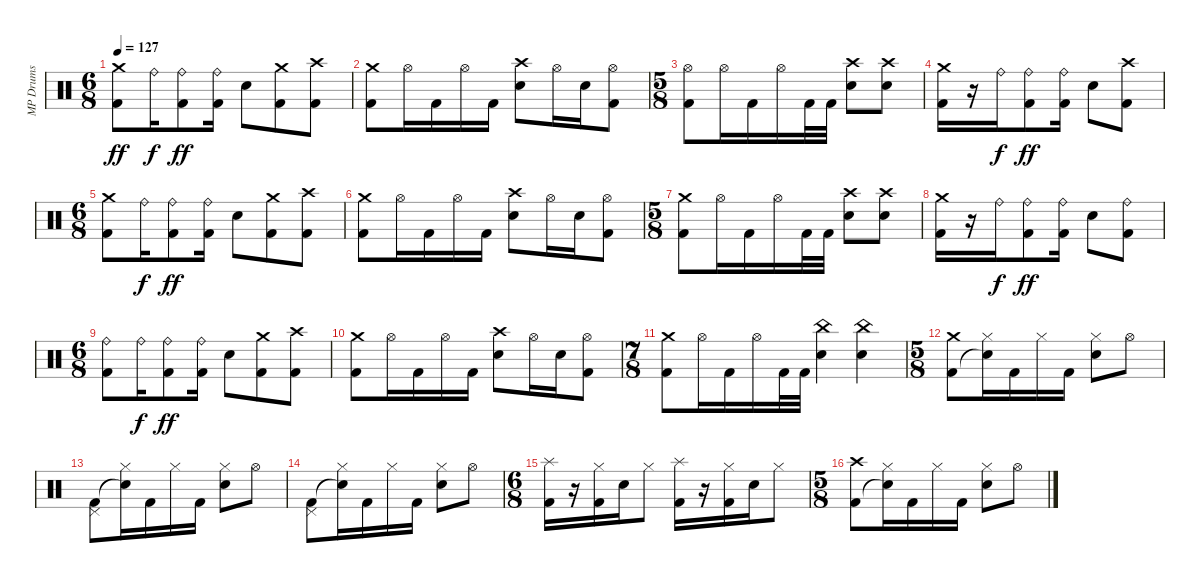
\track ("MP Drums" "MP Drums") {instrument percussion}
\staff {score}
\articulation defaults
\ts (6 8)
\tempo 127
\clef neutral
\ks c
("Crash medium (hit)" "Kick (hit) 2").8{dy ff} "Ride (bell)".16{dy f} ("Ride (bell)" "Kick (hit) 2").8{dy ff} ("Ride (bell)" "Kick (hit) 2").16 "Snare (hit) 2".8 ("Crash medium (hit)" "Kick (hit) 2").8 ("Crash high (hit)" "Kick (hit) 2").8 |
("Crash medium (hit)" "Kick (hit) 2").8 "Hi-Hat (open)".16 "Kick (hit) 2".16 "Hi-Hat (open)".16 "Kick (hit) 2".16 ("Crash high (hit)" "Snare (hit) 2").8 "Hi-Hat (open)".16 "Snare (hit) 2".16 ("Hi-Hat (open)" "Kick (hit) 2").8 |
\ts (5 8)
("Hi-Hat (open)" "Kick (hit) 2").8 "Hi-Hat (open)".16 "Kick (hit) 2".16 "Hi-Hat (open)".16 "Kick (hit) 2".32 "Kick (hit) 2".32 ("Crash high (hit)" "Snare (hit) 2").8 ("Crash high (hit)" "Snare (hit) 2").8 |
("Crash medium (hit)" "Kick (hit) 2").16 r.16 "Ride (bell)".16{dy f} ("Ride (bell)" "Kick (hit) 2").8{dy ff} ("Ride (bell)" "Kick (hit) 2").16 "Snare (hit) 2".8 ("Crash high (hit)" "Kick (hit) 2").8 |
\ts (6 8)
("Crash medium (hit)" "Kick (hit) 2").8 "Ride (bell)".16{dy f} ("Ride (bell)" "Kick (hit) 2").8{dy ff} ("Ride (bell)" "Kick (hit) 2").16 "Snare (hit) 2".8 ("Crash medium (hit)" "Kick (hit) 2").8 ("Crash high (hit)" "Kick (hit) 2").8 |
("Crash medium (hit)" "Kick (hit) 2").8 "Hi-Hat (open)".16 "Kick (hit) 2".16 "Hi-Hat (open)".16 "Kick (hit) 2".16 ("Crash high (hit)" "Snare (hit) 2").8 "Hi-Hat (open)".16 "Snare (hit) 2".16 ("Hi-Hat (open)" "Kick (hit) 2").8 |
\ts (5 8)
("Crash medium (hit)" "Kick (hit) 2").8 "Hi-Hat (open)".16 "Kick (hit) 2".16 "Hi-Hat (open)".16 "Kick (hit) 2".32 "Kick (hit) 2".32 ("Crash high (hit)" "Snare (hit) 2").8 ("Crash high (hit)" "Snare (hit) 2").8 |
("Crash medium (hit)" "Kick (hit) 2").16 r.16 "Ride (bell)".16{dy f} ("Ride (bell)" "Kick (hit) 2").8{dy ff} ("Ride (bell)" "Kick (hit) 2").16 "Snare (hit) 2".8 ("Ride (bell)" "Kick (hit) 2").8 |
\ts (6 8)
("Ride (bell)" "Kick (hit) 2").8 "Ride (bell)".16{dy f} ("Ride (bell)" "Kick (hit) 2").8{dy ff} ("Ride (bell)" "Kick (hit) 2").16 "Snare (hit) 2".8 ("Crash medium (hit)" "Kick (hit) 2").8 ("Crash high (hit)" "Kick (hit) 2").8 |
("Crash medium (hit)" "Kick (hit) 2").8 "Hi-Hat (open)".16 "Kick (hit) 2".16 "Hi-Hat (open)".16 "Kick (hit) 2".16 ("Crash high (hit)" "Snare (hit) 2").8 "Hi-Hat (open)".16 "Snare (hit) 2".16 ("Hi-Hat (open)" "Kick (hit) 2").8 |
\ts (7 8)
("Crash medium (hit)" "Kick (hit) 2").8 "Hi-Hat (open)".16 "Kick (hit) 2".16 "Hi-Hat (open)".16 "Kick (hit) 2".32 "Kick (hit) 2".32 ("China (hit)" "Snare (hit) 2").4 ("China (hit)" "Snare (hit) 2").4 |
\ts (5 8)
("Crash medium (hit)" "Kick (hit) 2").8 ("Hi-Hat (closed)" "Snare (hit)"{t}).16 "Kick (hit) 2".16 "Hi-Hat (closed)".16 "Kick (hit) 2".16 ("Hi-Hat (closed)" "Snare (hit) 2").8 "Hi-Hat (open)".8 |
("Pedal Hi-Hat (hit)" "Kick (hit) 2").8 ("Hi-Hat (closed)" "Snare (hit)"{t}).16 "Kick (hit) 2".16 "Hi-Hat (closed)".16 "Kick (hit) 2".16 ("Hi-Hat (closed)" "Snare (hit) 2").8 "Hi-Hat (open)".8 |
("Pedal Hi-Hat (hit)" "Kick (hit) 2").8 ("Hi-Hat (closed)" "Snare (hit)"{t}).16 "Kick (hit) 2".16 "Hi-Hat (closed)".16 "Kick (hit) 2".16 ("Hi-Hat (closed)" "Snare (hit) 2").8 "Hi-Hat (open)".8 |
\ts (6 8)
("Splash (hit)" "Kick (hit) 2").16 r.16 ("Hi-Hat (closed)" "Kick (hit) 2").16 "Snare (hit) 2".16 "Hi-Hat (closed)".8 ("Splash (hit)" "Kick (hit) 2").16 r.16 ("Hi-Hat (closed)" "Kick (hit) 2").16 "Snare (hit) 2".16 "Hi-Hat (closed)".8 |
\ts (5 8)
("Crash high (hit)" "Kick (hit) 2").8 ("Hi-Hat (closed)" "Snare (hit)"{t}).16 "Kick (hit) 2".16 "Hi-Hat (closed)".16 "Kick (hit) 2".16 ("Hi-Hat (closed)" "Snare (hit) 2").8 "Hi-Hat (open)".8
